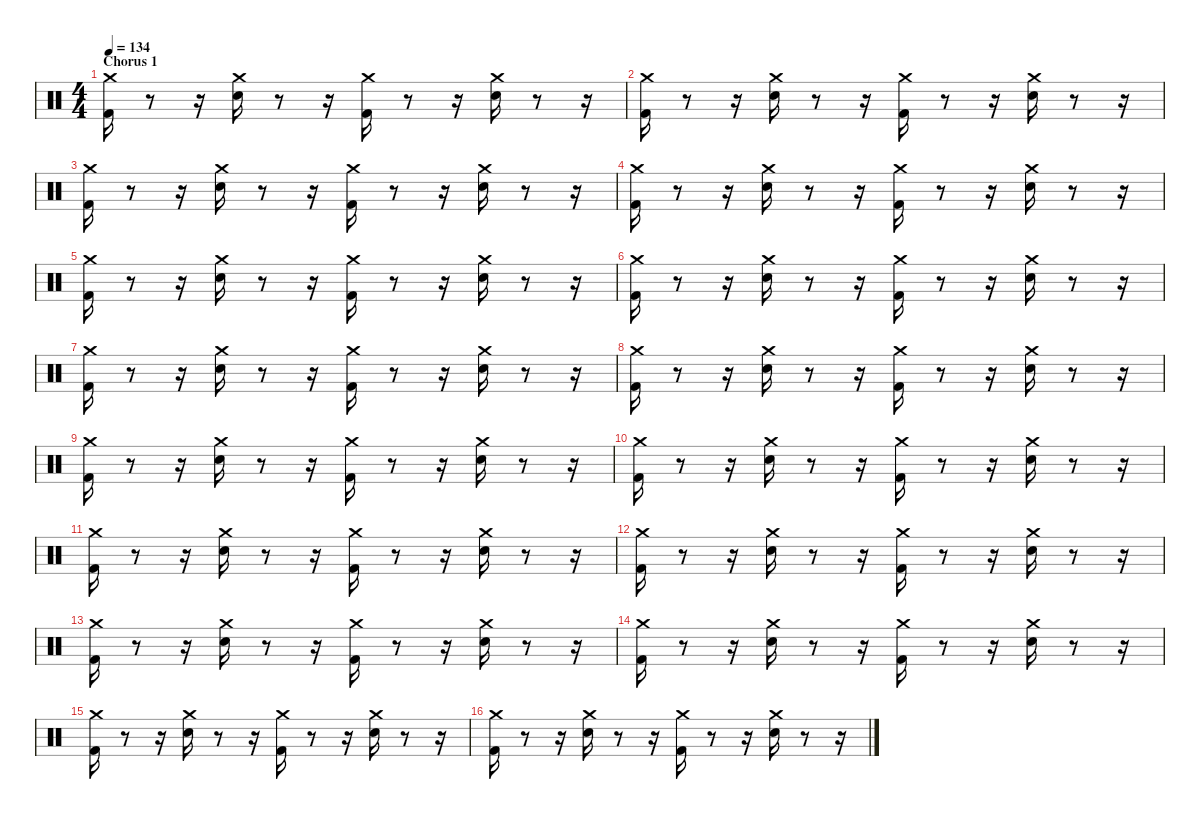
\defaultSystemsLayout 4
\hideDynamics
\bracketExtendMode nobrackets
\singleTrackTrackNamePolicy hidden
\multiTrackTrackNamePolicy hidden
\firstSystemTrackNameMode fullname
\firstSystemTrackNameOrientation horizontal
\otherSystemsTrackNameOrientation horizontal
\track ("John Bonham" "drm.") {instrument percussion}
\staff {score}
\articulation defaults
\ts (4 4)
\section ("" "Chorus 1")
\tempo 134
\clef neutral
\ks aminor
("Kick (hit) 2" "Crash medium (hit)").16{dy f beam Down} r.8{beam Down} r.16{beam Down} ("Snare (hit) 2" "Crash medium (hit)").16{beam Down} r.8{beam Down} r.16{beam Down} ("Kick (hit) 2" "Crash medium (hit)").16{beam Down} r.8{beam Down} r.16{beam Down} ("Snare (hit) 2" "Crash medium (hit)").16{beam Down} r.8{beam Down} r.16{beam Down} |
("Kick (hit) 2" "Crash medium (hit)").16{beam Down} r.8{beam Down} r.16{beam Down} ("Snare (hit) 2" "Crash medium (hit)").16{beam Down} r.8{beam Down} r.16{beam Down} ("Kick (hit) 2" "Crash medium (hit)").16{beam Down} r.8{beam Down} r.16{beam Down} ("Snare (hit) 2" "Crash medium (hit)").16{beam Down} r.8{beam Down} r.16{beam Down} |
("Kick (hit) 2" "Crash medium (hit)").16{beam Down} r.8{beam Down} r.16{beam Down} ("Snare (hit) 2" "Crash medium (hit)").16{beam Down} r.8{beam Down} r.16{beam Down} ("Kick (hit) 2" "Crash medium (hit)").16{beam Down} r.8{beam Down} r.16{beam Down} ("Snare (hit) 2" "Crash medium (hit)").16{beam Down} r.8{beam Down} r.16{beam Down} |
("Kick (hit) 2" "Crash medium (hit)").16{beam Down} r.8{beam Down} r.16{beam Down} ("Snare (hit) 2" "Crash medium (hit)").16{beam Down} r.8{beam Down} r.16{beam Down} ("Kick (hit) 2" "Crash medium (hit)").16{beam Down} r.8{beam Down} r.16{beam Down} ("Snare (hit) 2" "Crash medium (hit)").16{beam Down} r.8{beam Down} r.16{beam Down} |
("Kick (hit) 2" "Crash medium (hit)").16{beam Down} r.8{beam Down} r.16{beam Down} ("Snare (hit) 2" "Crash medium (hit)").16{beam Down} r.8{beam Down} r.16{beam Down} ("Kick (hit) 2" "Crash medium (hit)").16{beam Down} r.8{beam Down} r.16{beam Down} ("Snare (hit) 2" "Crash medium (hit)").16{beam Down} r.8{beam Down} r.16{beam Down} |
("Kick (hit) 2" "Crash medium (hit)").16{beam Down} r.8{beam Down} r.16{beam Down} ("Snare (hit) 2" "Crash medium (hit)").16{beam Down} r.8{beam Down} r.16{beam Down} ("Kick (hit) 2" "Crash medium (hit)").16{beam Down} r.8{beam Down} r.16{beam Down} ("Snare (hit) 2" "Crash medium (hit)").16{beam Down} r.8{beam Down} r.16{beam Down} |
("Kick (hit) 2" "Crash medium (hit)").16{beam Down} r.8{beam Down} r.16{beam Down} ("Snare (hit) 2" "Crash medium (hit)").16{beam Down} r.8{beam Down} r.16{beam Down} ("Kick (hit) 2" "Crash medium (hit)").16{beam Down} r.8{beam Down} r.16{beam Down} ("Snare (hit) 2" "Crash medium (hit)").16{beam Down} r.8{beam Down} r.16{beam Down} |
("Kick (hit) 2" "Crash medium (hit)").16{beam Down} r.8{beam Down} r.16{beam Down} ("Snare (hit) 2" "Crash medium (hit)").16{beam Down} r.8{beam Down} r.16{beam Down} ("Kick (hit) 2" "Crash medium (hit)").16{beam Down} r.8{beam Down} r.16{beam Down} ("Snare (hit) 2" "Crash medium (hit)").16{beam Down} r.8{beam Down} r.16{beam Down} |
("Kick (hit) 2" "Crash medium (hit)").16{beam Down} r.8{beam Down} r.16{beam Down} ("Snare (hit) 2" "Crash medium (hit)").16{beam Down} r.8{beam Down} r.16{beam Down} ("Kick (hit) 2" "Crash medium (hit)").16{beam Down} r.8{beam Down} r.16{beam Down} ("Snare (hit) 2" "Crash medium (hit)").16{beam Down} r.8{beam Down} r.16{beam Down} |
("Kick (hit) 2" "Crash medium (hit)").16{beam Down} r.8{beam Down} r.16{beam Down} ("Snare (hit) 2" "Crash medium (hit)").16{beam Down} r.8{beam Down} r.16{beam Down} ("Kick (hit) 2" "Crash medium (hit)").16{beam Down} r.8{beam Down} r.16{beam Down} ("Snare (hit) 2" "Crash medium (hit)").16{beam Down} r.8{beam Down} r.16{beam Down} |
("Kick (hit) 2" "Crash medium (hit)").16{beam Down} r.8{beam Down} r.16{beam Down} ("Snare (hit) 2" "Crash medium (hit)").16{beam Down} r.8{beam Down} r.16{beam Down} ("Kick (hit) 2" "Crash medium (hit)").16{beam Down} r.8{beam Down} r.16{beam Down} ("Snare (hit) 2" "Crash medium (hit)").16{beam Down} r.8{beam Down} r.16{beam Down} |
("Kick (hit) 2" "Crash medium (hit)").16{beam Down} r.8{beam Down} r.16{beam Down} ("Snare (hit) 2" "Crash medium (hit)").16{beam Down} r.8{beam Down} r.16{beam Down} ("Kick (hit) 2" "Crash medium (hit)").16{beam Down} r.8{beam Down} r.16{beam Down} ("Snare (hit) 2" "Crash medium (hit)").16{beam Down} r.8{beam Down} r.16{beam Down} |
("Kick (hit) 2" "Crash medium (hit)").16{beam Down} r.8{beam Down} r.16{beam Down} ("Snare (hit) 2" "Crash medium (hit)").16{beam Down} r.8{beam Down} r.16{beam Down} ("Kick (hit) 2" "Crash medium (hit)").16{beam Down} r.8{beam Down} r.16{beam Down} ("Snare (hit) 2" "Crash medium (hit)").16{beam Down} r.8{beam Down} r.16{beam Down} |
("Kick (hit) 2" "Crash medium (hit)").16{beam Down} r.8{beam Down} r.16{beam Down} ("Snare (hit) 2" "Crash medium (hit)").16{beam Down} r.8{beam Down} r.16{beam Down} ("Kick (hit) 2" "Crash medium (hit)").16{beam Down} r.8{beam Down} r.16{beam Down} ("Snare (hit) 2" "Crash medium (hit)").16{beam Down} r.8{beam Down} r.16{beam Down} |
("Kick (hit) 2" "Crash medium (hit)").16{beam Down} r.8{beam Down} r.16{beam Down} ("Snare (hit) 2" "Crash medium (hit)").16{beam Down} r.8{beam Down} r.16{beam Down} ("Kick (hit) 2" "Crash medium (hit)").16{beam Down} r.8{beam Down} r.16{beam Down} ("Snare (hit) 2" "Crash medium (hit)").16{beam Down} r.8{beam Down} r.16{beam Down} |
("Kick (hit) 2" "Crash medium (hit)").16{beam Down} r.8{beam Down} r.16{beam Down} ("Snare (hit) 2" "Crash medium (hit)").16{beam Down} r.8{beam Down} r.16{beam Down} ("Kick (hit) 2" "Crash medium (hit)").16{beam Down} r.8{beam Down} r.16{beam Down} ("Snare (hit) 2" "Crash medium (hit)").16{beam Down} r.8{beam Down} r.16{beam Down}
